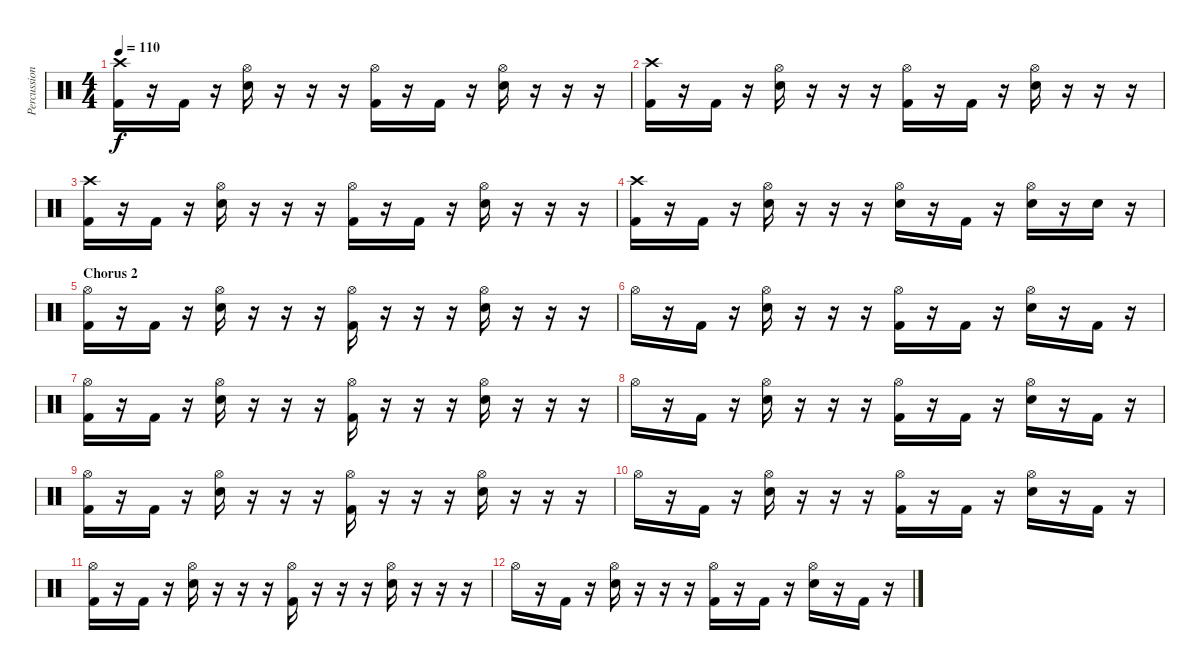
\track ("Percussion" "Percussion") {instrument percussion}
\staff {score}
\articulation defaults
\ts (4 4)
\tempo 110
\clef neutral
\ks c
("Kick (hit) 2" "Crash high (hit)").16{dy f} r.16 "Kick (hit) 2".16 r.16 ("Snare (hit) 2" "Hi-Hat (open)").16 r.16 r.16 r.16 ("Kick (hit) 2" "Hi-Hat (open)").16 r.16 "Kick (hit) 2".16 r.16 ("Snare (hit) 2" "Hi-Hat (open)").16 r.16 r.16 r.16 |
("Kick (hit) 2" "Crash high (hit)").16 r.16 "Kick (hit) 2".16 r.16 ("Snare (hit) 2" "Hi-Hat (open)").16 r.16 r.16 r.16 ("Kick (hit) 2" "Hi-Hat (open)").16 r.16 "Kick (hit) 2".16 r.16 ("Snare (hit) 2" "Hi-Hat (open)").16 r.16 r.16 r.16 |
("Kick (hit) 2" "Crash high (hit)").16 r.16 "Kick (hit) 2".16 r.16 ("Snare (hit) 2" "Hi-Hat (open)").16 r.16 r.16 r.16 ("Kick (hit) 2" "Hi-Hat (open)").16 r.16 "Kick (hit) 2".16 r.16 ("Snare (hit) 2" "Hi-Hat (open)").16 r.16 r.16 r.16 |
("Kick (hit) 2" "Crash high (hit)").16 r.16 "Kick (hit) 2".16 r.16 ("Snare (hit) 2" "Hi-Hat (open)").16 r.16 r.16 r.16 ("Snare (hit) 2" "Hi-Hat (open)").16 r.16 "Kick (hit) 2".16 r.16 ("Snare (hit) 2" "Hi-Hat (open)").16 r.16 "Snare (hit) 2".16 r.16 |
\section ("" "Chorus 2")
("Kick (hit) 2" "Hi-Hat (open)").16 r.16 "Kick (hit) 2".16 r.16 ("Snare (hit) 2" "Hi-Hat (open)").16 r.16 r.16 r.16 ("Kick (hit) 2" "Hi-Hat (open)").16 r.16 r.16 r.16 ("Snare (hit) 2" "Hi-Hat (open)").16 r.16 r.16 r.16 |
"Hi-Hat (open)".16 r.16 "Kick (hit) 2".16 r.16 ("Snare (hit) 2" "Hi-Hat (open)").16 r.16 r.16 r.16 ("Kick (hit) 2" "Hi-Hat (open)").16 r.16 "Kick (hit) 2".16 r.16 ("Snare (hit) 2" "Hi-Hat (open)").16 r.16 "Kick (hit) 2".16 r.16 |
("Kick (hit) 2" "Hi-Hat (open)").16 r.16 "Kick (hit) 2".16 r.16 ("Snare (hit) 2" "Hi-Hat (open)").16 r.16 r.16 r.16 ("Kick (hit) 2" "Hi-Hat (open)").16 r.16 r.16 r.16 ("Snare (hit) 2" "Hi-Hat (open)").16 r.16 r.16 r.16 |
"Hi-Hat (open)".16 r.16 "Kick (hit) 2".16 r.16 ("Snare (hit) 2" "Hi-Hat (open)").16 r.16 r.16 r.16 ("Kick (hit) 2" "Hi-Hat (open)").16 r.16 "Kick (hit) 2".16 r.16 ("Snare (hit) 2" "Hi-Hat (open)").16 r.16 "Kick (hit) 2".16 r.16 |
("Kick (hit) 2" "Hi-Hat (open)").16 r.16 "Kick (hit) 2".16 r.16 ("Snare (hit) 2" "Hi-Hat (open)").16 r.16 r.16 r.16 ("Kick (hit) 2" "Hi-Hat (open)").16 r.16 r.16 r.16 ("Snare (hit) 2" "Hi-Hat (open)").16 r.16 r.16 r.16 |
"Hi-Hat (open)".16 r.16 "Kick (hit) 2".16 r.16 ("Snare (hit) 2" "Hi-Hat (open)").16 r.16 r.16 r.16 ("Kick (hit) 2" "Hi-Hat (open)").16 r.16 "Kick (hit) 2".16 r.16 ("Snare (hit) 2" "Hi-Hat (open)").16 r.16 "Kick (hit) 2".16 r.16 |
("Kick (hit) 2" "Hi-Hat (open)").16 r.16 "Kick (hit) 2".16 r.16 ("Snare (hit) 2" "Hi-Hat (open)").16 r.16 r.16 r.16 ("Kick (hit) 2" "Hi-Hat (open)").16 r.16 r.16 r.16 ("Snare (hit) 2" "Hi-Hat (open)").16 r.16 r.16 r.16 |
"Hi-Hat (open)".16 r.16 "Kick (hit) 2".16 r.16 ("Snare (hit) 2" "Hi-Hat (open)").16 r.16 r.16 r.16 ("Kick (hit) 2" "Hi-Hat (open)").16 r.16 "Kick (hit) 2".16 r.16 ("Snare (hit) 2" "Hi-Hat (open)").16 r.16 "Kick (hit) 2".16 r.16
